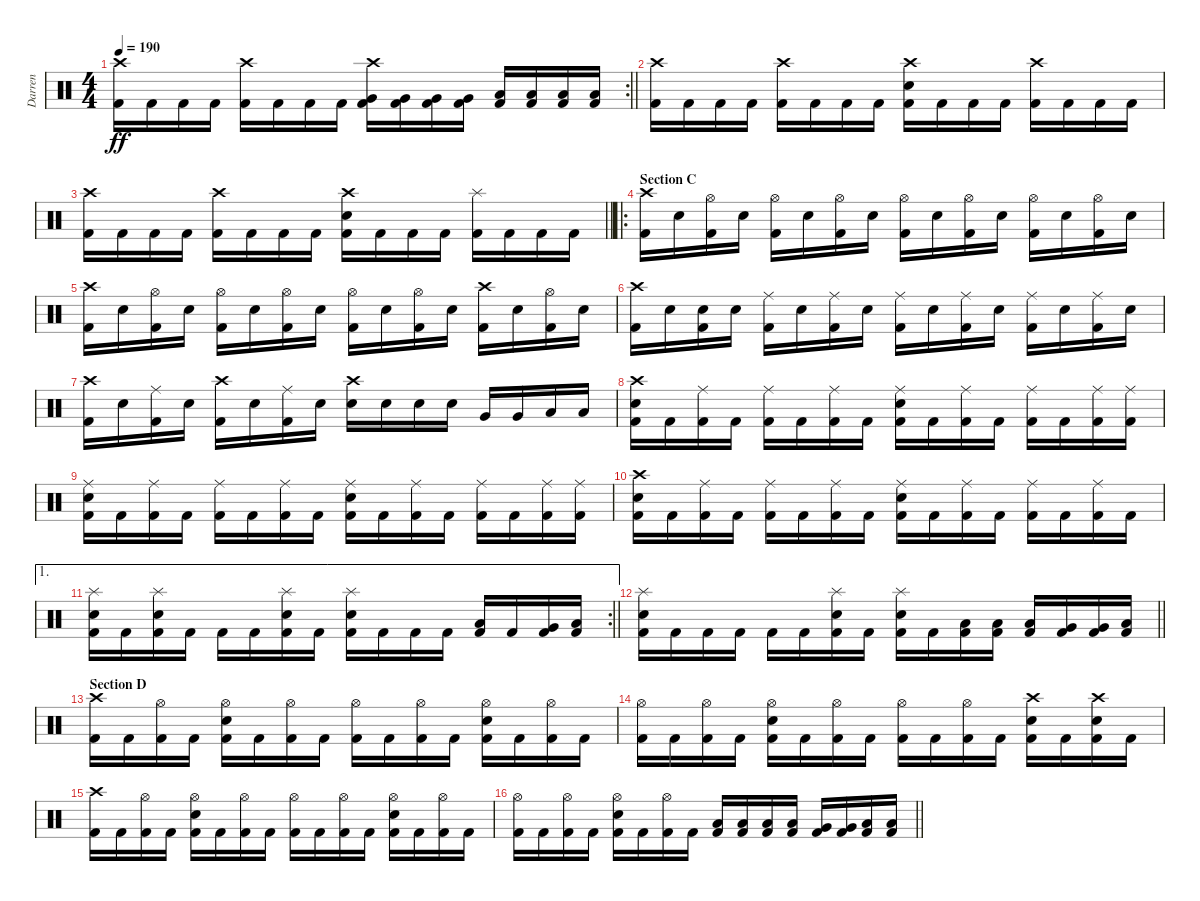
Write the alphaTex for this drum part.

\track ("Darren" "Darren") {instrument percussion}
\staff {score}
\articulation defaults
\rc 2
\ts (4 4)
\tempo 190
\clef neutral
\barLineRight lightlight
\ks c
("Crash high (hit)" "Kick (hit) 2").16{dy ff} "Kick (hit) 2".16 "Kick (hit) 2".16 "Kick (hit) 2".16 ("Crash high (hit)" "Kick (hit) 2").16 "Kick (hit) 2".16 "Kick (hit) 2".16 "Kick (hit) 2".16 ("Crash high (hit)" "Very Low Tom (hit)" "Kick (hit) 2").16 ("Very Low Tom (hit)" "Kick (hit) 2").16 ("Very Low Tom (hit)" "Kick (hit) 2").16 ("Very Low Tom (hit)" "Kick (hit) 2").16 ("Low Floor Tom (hit)" "Kick (hit) 2").16 ("Low Floor Tom (hit)" "Kick (hit) 2").16 ("Low Floor Tom (hit)" "Kick (hit) 2").16 ("Low Floor Tom (hit)" "Kick (hit) 2").16 |
("Crash high (hit)" "Kick (hit) 2").16 "Kick (hit) 2".16 "Kick (hit) 2".16 "Kick (hit) 2".16 ("Crash high (hit)" "Kick (hit) 2").16 "Kick (hit) 2".16 "Kick (hit) 2".16 "Kick (hit) 2".16 ("Crash high (hit)" "Electric Snare (hit)" "Kick (hit) 2").16 "Kick (hit) 2".16 "Kick (hit) 2".16 "Kick (hit) 2".16 ("Crash high (hit)" "Kick (hit) 2").16 "Kick (hit) 2".16 "Kick (hit) 2".16 "Kick (hit) 2".16 |
\barLineRight lightlight
("Crash high (hit)" "Kick (hit) 2").16 "Kick (hit) 2".16 "Kick (hit) 2".16 "Kick (hit) 2".16 ("Crash high (hit)" "Kick (hit) 2").16 "Kick (hit) 2".16 "Kick (hit) 2".16 "Kick (hit) 2".16 ("Crash high (hit)" "Electric Snare (hit)" "Kick (hit) 2").16 "Kick (hit) 2".16 "Kick (hit) 2".16 "Kick (hit) 2".16 ("Splash (hit)" "Kick (hit) 2").16 "Kick (hit) 2".16 "Kick (hit) 2".16 "Kick (hit) 2".16 |
\ro
\section ("" "Section C")
("Crash high (hit)" "Kick (hit) 2").16 "Electric Snare (hit)".16 ("Hi-Hat (open)" "Kick (hit) 2").16 "Electric Snare (hit)".16 ("Hi-Hat (open)" "Kick (hit) 2").16 "Electric Snare (hit)".16 ("Hi-Hat (open)" "Kick (hit) 2").16 "Electric Snare (hit)".16 ("Hi-Hat (open)" "Kick (hit) 2").16 "Electric Snare (hit)".16 ("Hi-Hat (open)" "Kick (hit) 2").16 "Electric Snare (hit)".16 ("Hi-Hat (open)" "Kick (hit) 2").16 "Electric Snare (hit)".16 ("Hi-Hat (open)" "Kick (hit) 2").16 "Electric Snare (hit)".16 |
("Crash high (hit)" "Kick (hit) 2").16 "Electric Snare (hit)".16 ("Hi-Hat (open)" "Kick (hit) 2").16 "Electric Snare (hit)".16 ("Hi-Hat (open)" "Kick (hit) 2").16 "Electric Snare (hit)".16 ("Hi-Hat (open)" "Kick (hit) 2").16 "Electric Snare (hit)".16 ("Hi-Hat (open)" "Kick (hit) 2").16 "Electric Snare (hit)".16 ("Hi-Hat (open)" "Kick (hit) 2").16 "Electric Snare (hit)".16 ("Crash high (hit)" "Kick (hit) 2").16 "Electric Snare (hit)".16 ("Hi-Hat (open)" "Kick (hit) 2").16 "Electric Snare (hit)".16 |
("Crash high (hit)" "Kick (hit) 2").16 "Electric Snare (hit)".16 ("Snare (hit)" "Kick (hit) 2").16 "Electric Snare (hit)".16 ("Ride (middle)" "Kick (hit) 2").16 "Electric Snare (hit)".16 ("Ride (middle)" "Kick (hit) 2").16 "Electric Snare (hit)".16 ("Ride (middle)" "Kick (hit) 2").16 "Electric Snare (hit)".16 ("Ride (middle)" "Kick (hit) 2").16 "Electric Snare (hit)".16 ("Ride (middle)" "Kick (hit) 2").16 "Electric Snare (hit)".16 ("Ride (middle)" "Kick (hit) 2").16 "Electric Snare (hit)".16 |
("Crash high (hit)" "Kick (hit) 2").16 "Electric Snare (hit)".16 ("Ride (middle)" "Kick (hit) 2").16 "Electric Snare (hit)".16 ("Crash high (hit)" "Kick (hit) 2").16 "Electric Snare (hit)".16 ("Ride (middle)" "Kick (hit) 2").16 "Electric Snare (hit)".16 ("Crash high (hit)" "Electric Snare (hit)").16 "Electric Snare (hit)".16 "Electric Snare (hit)".16 "Electric Snare (hit)".16 "Very Low Tom (hit)".16 "Very Low Tom (hit)".16 "Low Floor Tom (hit)".16 "Low Floor Tom (hit)".16 |
("Crash high (hit)" "Electric Snare (hit)" "Kick (hit) 2").16 "Kick (hit) 2".16 ("Ride (middle)" "Kick (hit) 2").16 "Kick (hit) 2".16 ("Ride (middle)" "Kick (hit) 2").16 "Kick (hit) 2".16 ("Ride (middle)" "Kick (hit) 2").16 "Kick (hit) 2".16 ("Ride (middle)" "Electric Snare (hit)" "Kick (hit) 2").16 "Kick (hit) 2".16 ("Ride (middle)" "Kick (hit) 2").16 "Kick (hit) 2".16 ("Ride (middle)" "Kick (hit) 2").16 "Kick (hit) 2".16 ("Ride (middle)" "Kick (hit) 2").16 ("Ride (middle)" "Kick (hit) 2").16 |
("Ride (middle)" "Electric Snare (hit)" "Kick (hit) 2").16 "Kick (hit) 2".16 ("Ride (middle)" "Kick (hit) 2").16 "Kick (hit) 2".16 ("Ride (middle)" "Kick (hit) 2").16 "Kick (hit) 2".16 ("Ride (middle)" "Kick (hit) 2").16 "Kick (hit) 2".16 ("Ride (middle)" "Electric Snare (hit)" "Kick (hit) 2").16 "Kick (hit) 2".16 ("Ride (middle)" "Kick (hit) 2").16 "Kick (hit) 2".16 ("Ride (middle)" "Kick (hit) 2").16 "Kick (hit) 2".16 ("Ride (middle)" "Kick (hit) 2").16 ("Ride (middle)" "Kick (hit) 2").16 |
("Crash high (hit)" "Electric Snare (hit)" "Kick (hit) 2").16 "Kick (hit) 2".16 ("Ride (middle)" "Kick (hit) 2").16 "Kick (hit) 2".16 ("Ride (middle)" "Kick (hit) 2").16 "Kick (hit) 2".16 ("Ride (middle)" "Kick (hit) 2").16 "Kick (hit) 2".16 ("Ride (middle)" "Electric Snare (hit)" "Kick (hit) 2").16 "Kick (hit) 2".16 ("Ride (middle)" "Kick (hit) 2").16 "Kick (hit) 2".16 ("Ride (middle)" "Kick (hit) 2").16 "Kick (hit) 2".16 ("Ride (middle)" "Kick (hit) 2").16 "Kick (hit) 2".16 |
\ae 1
\rc 2
\barLineRight lightlight
("Splash (hit)" "Electric Snare (hit)" "Kick (hit) 2").16 "Kick (hit) 2".16 ("Splash (hit)" "Electric Snare (hit)" "Kick (hit) 2").16 "Kick (hit) 2".16 "Kick (hit) 2".16 "Kick (hit) 2".16 ("Splash (hit)" "Electric Snare (hit)" "Kick (hit) 2").16 "Kick (hit) 2".16 ("Splash (hit)" "Electric Snare (hit)" "Kick (hit) 2").16 "Kick (hit) 2".16 "Kick (hit) 2".16 "Kick (hit) 2".16 ("Low Tom (hit)" "Kick (hit) 2").16 "Kick (hit) 2".16 ("Very Low Tom (hit)" "Kick (hit) 2").16 ("Low Floor Tom (hit)" "Kick (hit) 2").16 |
\barLineRight lightlight
("Splash (hit)" "Electric Snare (hit)" "Kick (hit) 2").16 "Kick (hit) 2".16 "Kick (hit) 2".16 "Kick (hit) 2".16 "Kick (hit) 2".16 "Kick (hit) 2".16 ("Splash (hit)" "Electric Snare (hit)" "Kick (hit) 2").16 "Kick (hit) 2".16 ("Splash (hit)" "Electric Snare (hit)" "Kick (hit) 2").16 "Kick (hit) 2".16 ("Low Tom (hit)" "Kick (hit) 2").16 ("Low Tom (hit)" "Kick (hit) 2").16 ("Low Tom (hit)" "Kick (hit) 2").16 ("Very Low Tom (hit)" "Kick (hit) 2").16 ("Very Low Tom (hit)" "Kick (hit) 2").16 ("Low Floor Tom (hit)" "Kick (hit) 2").16 |
\section ("" "Section D")
("Crash high (hit)" "Kick (hit) 2").16 "Kick (hit) 2".16 ("Hi-Hat (open)" "Kick (hit) 2").16 "Kick (hit) 2".16 ("Hi-Hat (open)" "Electric Snare (hit)" "Kick (hit) 2").16 "Kick (hit) 2".16 ("Hi-Hat (open)" "Kick (hit) 2").16 "Kick (hit) 2".16 ("Hi-Hat (open)" "Kick (hit) 2").16 "Kick (hit) 2".16 ("Hi-Hat (open)" "Kick (hit) 2").16 "Kick (hit) 2".16 ("Hi-Hat (open)" "Electric Snare (hit)" "Kick (hit) 2").16 "Kick (hit) 2".16 ("Hi-Hat (open)" "Kick (hit) 2").16 "Kick (hit) 2".16 |
("Hi-Hat (open)" "Kick (hit) 2").16 "Kick (hit) 2".16 ("Hi-Hat (open)" "Kick (hit) 2").16 "Kick (hit) 2".16 ("Hi-Hat (open)" "Electric Snare (hit)" "Kick (hit) 2").16 "Kick (hit) 2".16 ("Hi-Hat (open)" "Kick (hit) 2").16 "Kick (hit) 2".16 ("Hi-Hat (open)" "Kick (hit) 2").16 "Kick (hit) 2".16 ("Hi-Hat (open)" "Kick (hit) 2").16 "Kick (hit) 2".16 ("Crash high (hit)" "Electric Snare (hit)" "Kick (hit) 2").16 "Kick (hit) 2".16 ("Crash high (hit)" "Electric Snare (hit)" "Kick (hit) 2").16 "Kick (hit) 2".16 |
("Crash high (hit)" "Kick (hit) 2").16 "Kick (hit) 2".16 ("Hi-Hat (open)" "Kick (hit) 2").16 "Kick (hit) 2".16 ("Hi-Hat (open)" "Electric Snare (hit)" "Kick (hit) 2").16 "Kick (hit) 2".16 ("Hi-Hat (open)" "Kick (hit) 2").16 "Kick (hit) 2".16 ("Hi-Hat (open)" "Kick (hit) 2").16 "Kick (hit) 2".16 ("Hi-Hat (open)" "Kick (hit) 2").16 "Kick (hit) 2".16 ("Hi-Hat (open)" "Electric Snare (hit)" "Kick (hit) 2").16 "Kick (hit) 2".16 ("Hi-Hat (open)" "Kick (hit) 2").16 "Kick (hit) 2".16 |
\barLineRight lightlight
("Hi-Hat (open)" "Kick (hit) 2").16 "Kick (hit) 2".16 ("Hi-Hat (open)" "Kick (hit) 2").16 "Kick (hit) 2".16 ("Hi-Hat (open)" "Electric Snare (hit)" "Kick (hit) 2").16 "Kick (hit) 2".16 ("Hi-Hat (open)" "Kick (hit) 2").16 "Kick (hit) 2".16 ("Low Tom (hit)" "Kick (hit) 2").16 ("Low Tom (hit)" "Kick (hit) 2").16 ("Low Tom (hit)" "Kick (hit) 2").16 ("Low Tom (hit)" "Kick (hit) 2").16 ("Very Low Tom (hit)" "Kick (hit) 2").16 ("Very Low Tom (hit)" "Kick (hit) 2").16 ("Low Floor Tom (hit)" "Kick (hit) 2").16 ("Low Floor Tom (hit)" "Kick (hit) 2").16
